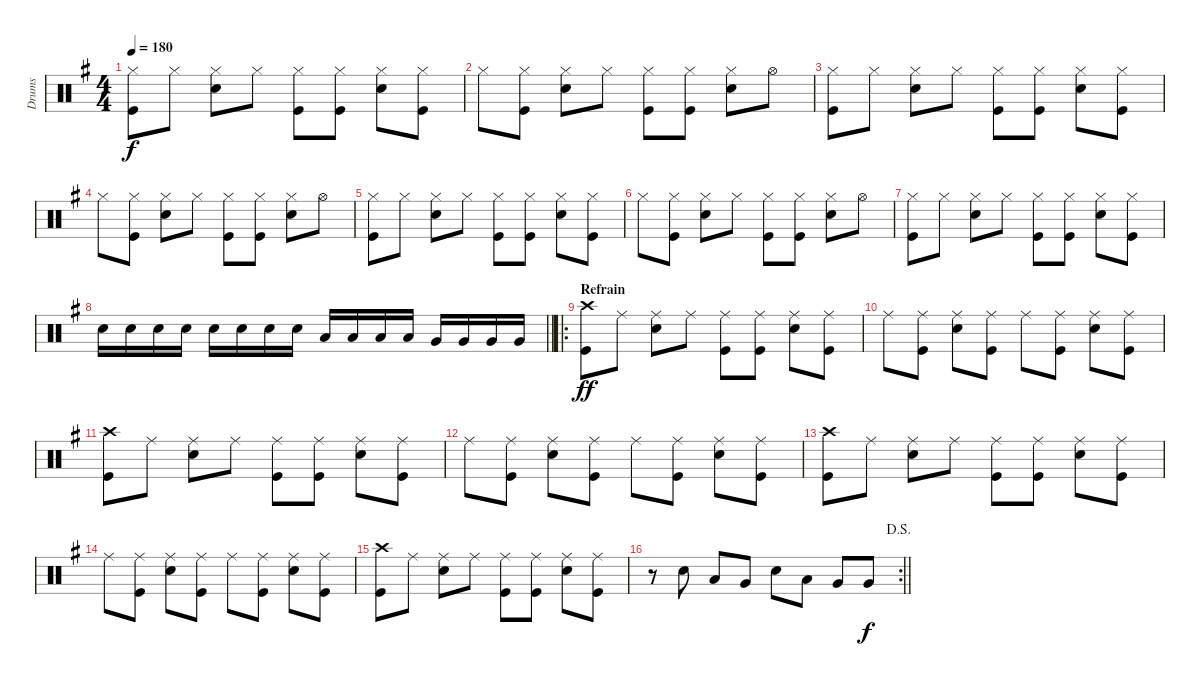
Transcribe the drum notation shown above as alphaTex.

\track ("Drums" "Drums") {instrument percussion}
\staff {score}
\articulation defaults
\ts (4 4)
\tempo 180
\clef neutral
\ks g
("Hi-Hat (closed)" "Kick (hit)").8{dy f} "Hi-Hat (closed)".8 ("Hi-Hat (closed)" "Electric Snare (hit)").8 "Hi-Hat (closed)".8 ("Hi-Hat (closed)" "Kick (hit)").8 ("Hi-Hat (closed)" "Kick (hit)").8 ("Hi-Hat (closed)" "Electric Snare (hit)").8 ("Hi-Hat (closed)" "Kick (hit)").8 |
"Hi-Hat (closed)".8 ("Hi-Hat (closed)" "Kick (hit)").8 ("Hi-Hat (closed)" "Electric Snare (hit)").8 "Hi-Hat (closed)".8 ("Hi-Hat (closed)" "Kick (hit)").8 ("Hi-Hat (closed)" "Kick (hit)").8 ("Hi-Hat (closed)" "Electric Snare (hit)").8 "Hi-Hat (open)".8 |
("Hi-Hat (closed)" "Kick (hit)").8 "Hi-Hat (closed)".8 ("Hi-Hat (closed)" "Electric Snare (hit)").8 "Hi-Hat (closed)".8 ("Hi-Hat (closed)" "Kick (hit)").8 ("Hi-Hat (closed)" "Kick (hit)").8 ("Hi-Hat (closed)" "Electric Snare (hit)").8 ("Hi-Hat (closed)" "Kick (hit)").8 |
"Hi-Hat (closed)".8 ("Hi-Hat (closed)" "Kick (hit)").8 ("Hi-Hat (closed)" "Electric Snare (hit)").8 "Hi-Hat (closed)".8 ("Hi-Hat (closed)" "Kick (hit)").8 ("Hi-Hat (closed)" "Kick (hit)").8 ("Hi-Hat (closed)" "Electric Snare (hit)").8 "Hi-Hat (open)".8 |
("Hi-Hat (closed)" "Kick (hit)").8 "Hi-Hat (closed)".8 ("Hi-Hat (closed)" "Electric Snare (hit)").8 "Hi-Hat (closed)".8 ("Hi-Hat (closed)" "Kick (hit)").8 ("Hi-Hat (closed)" "Kick (hit)").8 ("Hi-Hat (closed)" "Electric Snare (hit)").8 ("Hi-Hat (closed)" "Kick (hit)").8 |
"Hi-Hat (closed)".8 ("Hi-Hat (closed)" "Kick (hit)").8 ("Hi-Hat (closed)" "Electric Snare (hit)").8 "Hi-Hat (closed)".8 ("Hi-Hat (closed)" "Kick (hit)").8 ("Hi-Hat (closed)" "Kick (hit)").8 ("Hi-Hat (closed)" "Electric Snare (hit)").8 "Hi-Hat (open)".8 |
("Hi-Hat (closed)" "Kick (hit)").8 "Hi-Hat (closed)".8 ("Hi-Hat (closed)" "Electric Snare (hit)").8 "Hi-Hat (closed)".8 ("Hi-Hat (closed)" "Kick (hit)").8 ("Hi-Hat (closed)" "Kick (hit)").8 ("Hi-Hat (closed)" "Electric Snare (hit)").8 ("Hi-Hat (closed)" "Kick (hit)").8 |
\barLineRight lightlight "Electric Snare (hit)".16 "Electric Snare (hit)".16 "Electric Snare (hit)".16 "Electric Snare (hit)".16 "Electric Snare (hit)".16 "Electric Snare (hit)".16 "Electric Snare (hit)".16 "Electric Snare (hit)".16 "Low Tom (hit)".16 "Low Tom (hit)".16 "Low Tom (hit)".16 "Low Tom (hit)".16 "Very Low Tom (hit)".16 "Very Low Tom (hit)".16 "Very Low Tom (hit)".16 "Very Low Tom (hit)".16
|
\ro
\section ("" "Refrain")
("Crash high (hit)" "Kick (hit)").8{dy ff} "Ride (middle)".8 ("Ride (middle)" "Electric Snare (hit)").8 "Ride (middle)".8 ("Ride (middle)" "Kick (hit)").8 ("Ride (middle)" "Kick (hit)").8 ("Ride (middle)" "Electric Snare (hit)").8 ("Ride (middle)" "Kick (hit)").8 |
"Ride (middle)".8 ("Ride (middle)" "Kick (hit)").8 ("Ride (middle)" "Electric Snare (hit)").8 ("Ride (middle)" "Kick (hit)").8 "Ride (middle)".8 ("Ride (middle)" "Kick (hit)").8 ("Ride (middle)" "Electric Snare (hit)").8 ("Ride (middle)" "Kick (hit)").8 |
("Crash high (hit)" "Kick (hit)").8 "Ride (middle)".8 ("Ride (middle)" "Electric Snare (hit)").8 "Ride (middle)".8 ("Ride (middle)" "Kick (hit)").8 ("Ride (middle)" "Kick (hit)").8 ("Ride (middle)" "Electric Snare (hit)").8 ("Ride (middle)" "Kick (hit)").8 |
"Ride (middle)".8 ("Ride (middle)" "Kick (hit)").8 ("Ride (middle)" "Electric Snare (hit)").8 ("Ride (middle)" "Kick (hit)").8 "Ride (middle)".8 ("Ride (middle)" "Kick (hit)").8 ("Ride (middle)" "Electric Snare (hit)").8 ("Ride (middle)" "Kick (hit)").8 |
("Crash high (hit)" "Kick (hit)").8 "Ride (middle)".8 ("Ride (middle)" "Electric Snare (hit)").8 "Ride (middle)".8 ("Ride (middle)" "Kick (hit)").8 ("Ride (middle)" "Kick (hit)").8 ("Ride (middle)" "Electric Snare (hit)").8 ("Ride (middle)" "Kick (hit)").8 |
"Ride (middle)".8 ("Ride (middle)" "Kick (hit)").8 ("Ride (middle)" "Electric Snare (hit)").8 ("Ride (middle)" "Kick (hit)").8 "Ride (middle)".8 ("Ride (middle)" "Kick (hit)").8 ("Ride (middle)" "Electric Snare (hit)").8 ("Ride (middle)" "Kick (hit)").8 |
("Crash high (hit)" "Kick (hit)").8 "Ride (middle)".8 ("Ride (middle)" "Electric Snare (hit)").8 "Ride (middle)".8 ("Ride (middle)" "Kick (hit)").8 ("Ride (middle)" "Kick (hit)").8 ("Ride (middle)" "Electric Snare (hit)").8 ("Ride (middle)" "Kick (hit)").8 |
\rc 2
\jump dalsegno
\barLineRight lightlight
r.8 "Electric Snare (hit)".8 "Low Tom (hit)".8 "Very Low Tom (hit)".8 "Electric Snare (hit)".8 "Low Tom (hit)".8 "Very Low Tom (hit)".8 "Very Low Tom (hit)".8{dy f}
